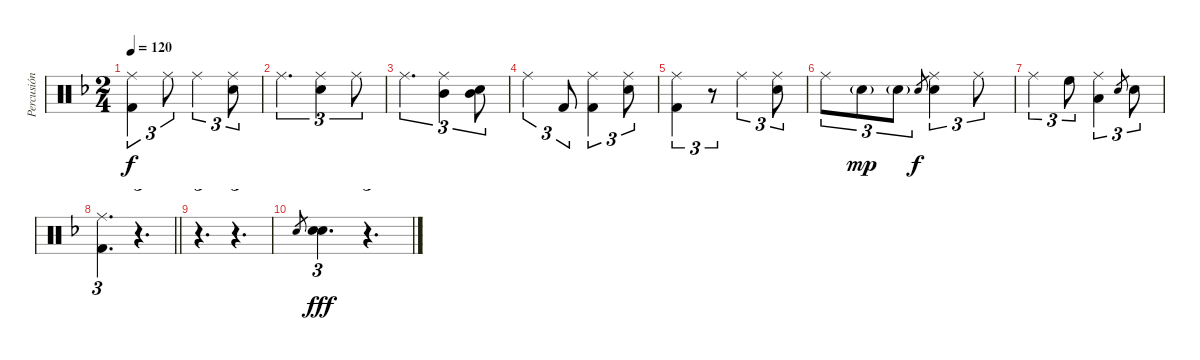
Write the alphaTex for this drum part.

\track ("Percusión" "Percusión") {instrument percussion}
\staff {score}
\articulation defaults
\ts (2 4)
\tempo 120
\clef neutral
\ks dminor
("Ride (middle)" "Kick (hit) 2").4{tu (3 2) dy f} "Ride (middle)".8{tu (3 2)} "Ride (middle)".4{tu (3 2)} ("Ride (middle)" "Snare (hit) 2").8{tu (3 2)} |
"Ride (middle)".4{d tu (3 2)} ("Ride (middle)" "Snare (hit) 2").4{tu (3 2)} "Ride (middle)".8{tu (3 2)} |
"Ride (middle)".4{d tu (3 2)} ("Ride (middle)" "Mid Tom (hit)").4{tu (3 2)} ("Mid Tom (hit)" "Snare (hit) 2").8{tu (3 2)} |
"Ride (middle)".4{tu (3 2)} "Kick (hit) 2".8{tu (3 2)} ("Ride (middle)" "Kick (hit) 2").4{tu (3 2)} ("Ride (middle)" "Snare (hit) 2").8{tu (3 2)} |
("Ride (middle)" "Kick (hit) 2").4{tu (3 2)} r.8{tu (3 2)} "Ride (middle)".4{tu (3 2)} ("Ride (middle)" "Snare (hit) 2").8{tu (3 2)} |
"Ride (middle)".8{tu (3 2)} "Snare (hit) 2"{g}.8{tu (3 2) dy mp} "Snare (hit) 2"{g}.8{tu (3 2)} "Snare (hit) 2".8{gr dy f} ("Ride (middle)" "Snare (hit) 2").4{tu (3 2)} "Ride (middle)".8{tu (3 2)} |
"Ride (middle)".4{tu (3 2)} "High Floor Tom (hit)".8{tu (3 2)} ("Ride (middle)" "Low Tom (hit)").4{tu (3 2)} "Snare (hit) 2".8{gr} "Snare (hit) 2".8{tu (3 2)} |
\barLineRight lightlight
("Ride (middle)" "Kick (hit) 2").4{d tu (3 2)} r.4{d tu (3 2)} |
r.4{d tu (3 2)} r.4{d tu (3 2)} |
"Snare (hit) 2".8{gr} ("Snare (hit) 2" "Electric Snare (hit)").4{d tu (3 2) dy fff} r.4{d tu (3 2)}
